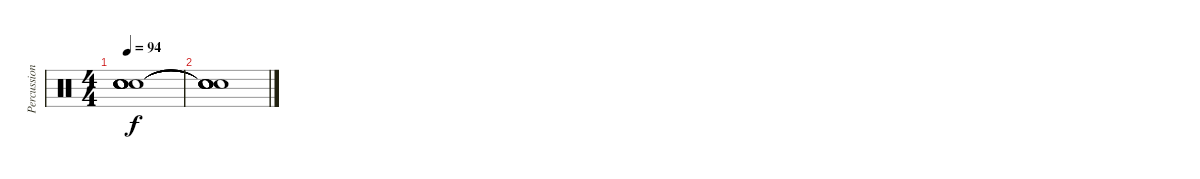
\track ("Percussion" "Percussion") {instrument percussion}
\staff {score}
\articulation defaults
\ts (4 4)
\tempo 94
\clef neutral
\ks c
("Snare (hit)"{t} "Snare (hit)"{t} "Snare (hit)"{t} "Snare (hit)"{t} "Snare (hit)"{t} "Snare (hit)"{t}).1{dy f} |
("Snare (hit)"{t} "Snare (hit)"{t} "Snare (hit)"{t} "Snare (hit)"{t} "Snare (hit)"{t} "Snare (hit)"{t}).1
